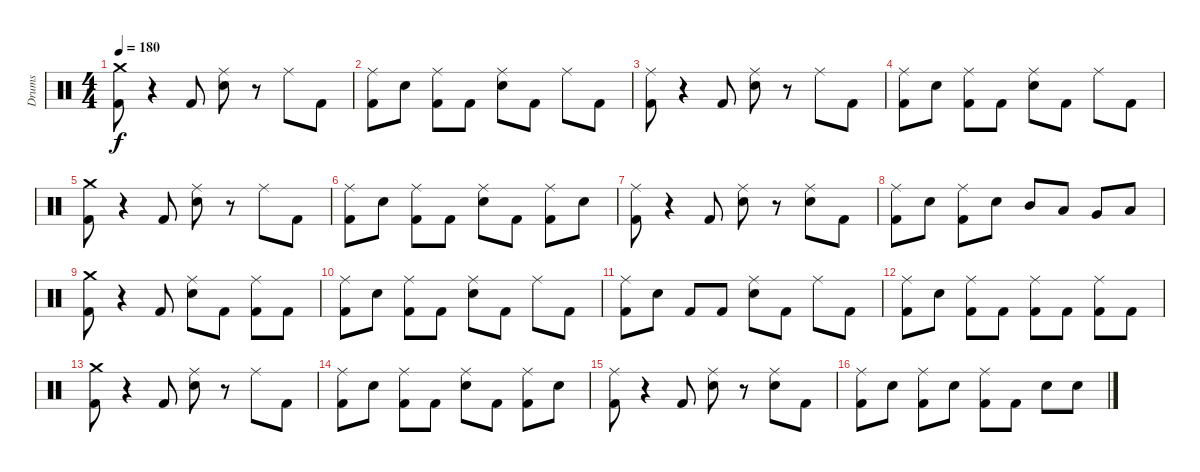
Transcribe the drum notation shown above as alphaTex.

\track ("Drums" "Drums") {instrument percussion}
\staff {score}
\articulation defaults
\ts (4 4)
\section ("" "")
\tempo 180
\clef neutral
\ks c
("Crash medium (hit)" "Kick (hit) 2").8{dy f} r.4 "Kick (hit) 2".8 ("Ride (middle)" "Electric Snare (hit)").8 r.8 "Ride (middle)".8 "Kick (hit) 2".8 |
("Ride (middle)" "Kick (hit) 2").8 "Electric Snare (hit)".8 ("Ride (middle)" "Kick (hit) 2").8 "Kick (hit) 2".8 ("Ride (middle)" "Electric Snare (hit)").8 "Kick (hit) 2".8 "Ride (middle)".8 "Kick (hit) 2".8 |
("Ride (middle)" "Kick (hit) 2").8 r.4 "Kick (hit) 2".8 ("Ride (middle)" "Electric Snare (hit)").8 r.8 "Ride (middle)".8 "Kick (hit) 2".8 |
("Ride (middle)" "Kick (hit) 2").8 "Electric Snare (hit)".8 ("Ride (middle)" "Kick (hit) 2").8 "Kick (hit) 2".8 ("Ride (middle)" "Electric Snare (hit)").8 "Kick (hit) 2".8 "Ride (middle)".8 "Kick (hit) 2".8 |
("Crash medium (hit)" "Kick (hit) 2").8 r.4 "Kick (hit) 2".8 ("Ride (middle)" "Electric Snare (hit)").8 r.8 "Ride (middle)".8 "Kick (hit) 2".8 |
("Ride (middle)" "Kick (hit) 2").8 "Electric Snare (hit)".8 ("Ride (middle)" "Kick (hit) 2").8 "Kick (hit) 2".8 ("Ride (middle)" "Electric Snare (hit)").8 "Kick (hit) 2".8 ("Ride (middle)" "Kick (hit) 2").8 "Electric Snare (hit)".8 |
("Ride (middle)" "Kick (hit) 2").8 r.4 "Kick (hit) 2".8 ("Ride (middle)" "Electric Snare (hit)").8 r.8 ("Ride (middle)" "Electric Snare (hit)").8 "Kick (hit) 2".8 |
("Ride (middle)" "Kick (hit) 2").8 "Electric Snare (hit)".8 ("Ride (middle)" "Kick (hit) 2").8 "Electric Snare (hit)".8 "Mid Tom (hit)".8 "Low Tom (hit)".8 "Very Low Tom (hit)".8 "Low Floor Tom (hit)".8 |
("Crash medium (hit)" "Kick (hit) 2").8 r.4 "Kick (hit) 2".8 ("Ride (middle)" "Electric Snare (hit)").8 "Kick (hit) 2".8 ("Ride (middle)" "Kick (hit) 2").8 "Kick (hit) 2".8 |
("Ride (middle)" "Kick (hit) 2").8 "Electric Snare (hit)".8 ("Ride (middle)" "Kick (hit) 2").8 "Kick (hit) 2".8 ("Ride (middle)" "Electric Snare (hit)").8 "Kick (hit) 2".8 "Ride (middle)".8 "Kick (hit) 2".8 |
("Ride (middle)" "Kick (hit) 2").8 "Electric Snare (hit)".8 "Kick (hit) 2".8 "Kick (hit) 2".8 ("Ride (middle)" "Electric Snare (hit)").8 "Kick (hit) 2".8 "Ride (middle)".8 "Kick (hit) 2".8 |
("Ride (middle)" "Kick (hit) 2").8 "Electric Snare (hit)".8 ("Ride (middle)" "Kick (hit) 2").8 "Kick (hit) 2".8 ("Ride (middle)" "Kick (hit) 2").8 "Kick (hit) 2".8 ("Ride (middle)" "Kick (hit) 2").8 "Kick (hit) 2".8 |
("Crash medium (hit)" "Kick (hit) 2").8 r.4 "Kick (hit) 2".8 ("Ride (middle)" "Electric Snare (hit)").8 r.8 "Ride (middle)".8 "Kick (hit) 2".8 |
("Ride (middle)" "Kick (hit) 2").8 "Electric Snare (hit)".8 ("Ride (middle)" "Kick (hit) 2").8 "Kick (hit) 2".8 ("Ride (middle)" "Electric Snare (hit)").8 "Kick (hit) 2".8 ("Ride (middle)" "Kick (hit) 2").8 "Electric Snare (hit)".8 |
("Ride (middle)" "Kick (hit) 2").8 r.4 "Kick (hit) 2".8 ("Ride (middle)" "Electric Snare (hit)").8 r.8 ("Ride (middle)" "Electric Snare (hit)").8 "Kick (hit) 2".8 |
("Ride (middle)" "Kick (hit) 2").8 "Electric Snare (hit)".8 ("Ride (middle)" "Kick (hit) 2").8 "Electric Snare (hit)".8 ("Ride (middle)" "Kick (hit) 2").8 "Kick (hit) 2".8 "Electric Snare (hit)".8 "Electric Snare (hit)".8
